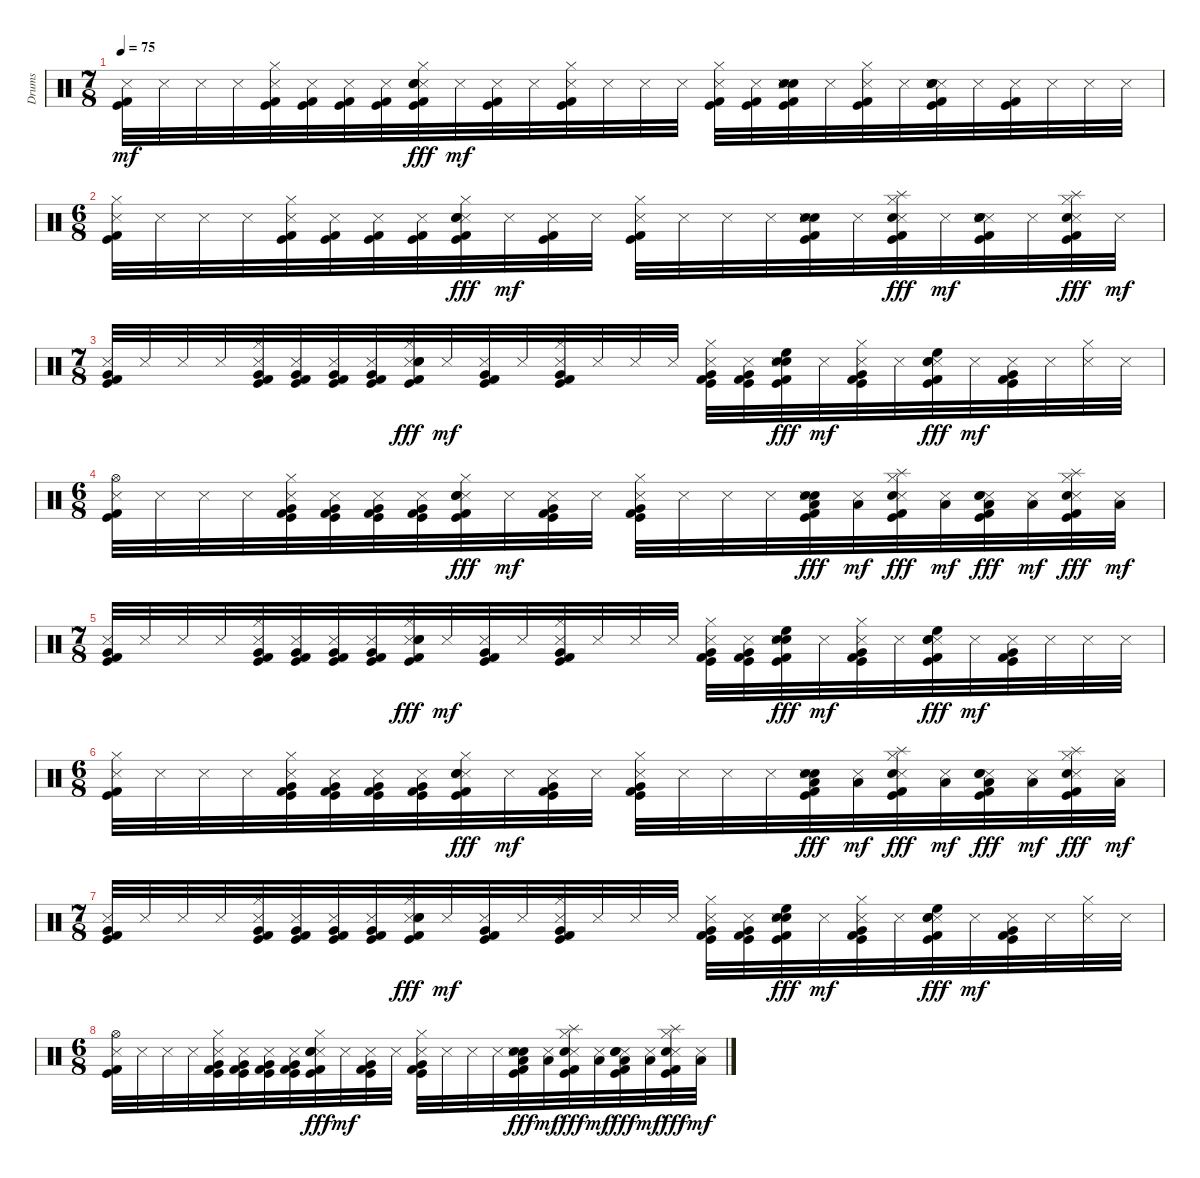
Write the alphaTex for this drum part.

\track ("Drums" "Drums") {instrument percussion}
\staff {score}
\articulation defaults
\ts (7 8)
\tempo 75
\clef neutral
\ks c
("Kick (hit) 2" "Kick (hit)" "Metronome (hit)").32{dy mf} "Metronome (hit)".32 "Metronome (hit)".32 "Metronome (hit)".32 ("Hi-Hat (closed)" "Kick (hit)" "Kick (hit) 2" "Metronome (hit)").32 ("Kick (hit)" "Kick (hit) 2" "Metronome (hit)").32 ("Kick (hit)" "Kick (hit) 2" "Metronome (hit)").32 ("Kick (hit)" "Kick (hit) 2" "Metronome (hit)").32 ("Hi-Hat (closed)" "Metronome (hit)" "Snare (hit) 2" "Electric Snare (hit)" "Kick (hit)" "Kick (hit) 2").32{dy fff} "Metronome (hit)".32{dy mf} ("Kick (hit) 2" "Kick (hit)" "Metronome (hit)").32 "Metronome (hit)".32 ("Hi-Hat (closed)" "Kick (hit)" "Kick (hit) 2" "Metronome (hit)").32 "Metronome (hit)".32 "Metronome (hit)".32 "Metronome (hit)".32 ("Hi-Hat (closed)" "Kick (hit) 2" "Kick (hit)" "Metronome (hit)").32 ("Kick (hit)" "Kick (hit) 2" "Metronome (hit)").32 ("Snare (hit) 2" "Metronome (hit)" "Kick (hit)" "Kick (hit) 2" "Electric Snare (hit)" "Metronome (hit)").32 "Metronome (hit)".32 ("Hi-Hat (closed)" "Kick (hit)" "Kick (hit) 2" "Metronome (hit)").32 "Metronome (hit)".32 ("Metronome (hit)" "Kick (hit)" "Kick (hit) 2" "Snare (hit) 2" "Electric Snare (hit)" "Metronome (hit)").32 "Metronome (hit)".32 ("Kick (hit) 2" "Kick (hit)" "Metronome (hit)").32 "Metronome (hit)".32 "Metronome (hit)".32 "Metronome (hit)".32 |
\ts (6 8)
("Hi-Hat (closed)" "Kick (hit) 2" "Kick (hit)" "Metronome (hit)").32 "Metronome (hit)".32 "Metronome (hit)".32 "Metronome (hit)".32 ("Hi-Hat (closed)" "Kick (hit) 2" "Kick (hit)" "Metronome (hit)").32 ("Kick (hit) 2" "Kick (hit)" "Metronome (hit)").32 ("Kick (hit) 2" "Kick (hit)" "Metronome (hit)").32 ("Kick (hit)" "Kick (hit) 2" "Metronome (hit)").32 ("Hi-Hat (closed)" "Metronome (hit)" "Kick (hit)" "Kick (hit) 2" "Snare (hit) 2" "Electric Snare (hit)").32{dy fff} "Metronome (hit)".32{dy mf} ("Kick (hit)" "Kick (hit) 2" "Metronome (hit)").32 "Metronome (hit)".32 ("Hi-Hat (closed)" "Kick (hit)" "Kick (hit) 2" "Metronome (hit)").32 "Metronome (hit)".32 "Metronome (hit)".32 "Metronome (hit)".32 ("Electric Snare (hit)" "Metronome (hit)" "Kick (hit)" "Kick (hit) 2" "Snare (hit) 2" "Metronome (hit)").32 "Metronome (hit)".32 ("Hi-Hat (closed)" "Splash (hit)" "Metronome (hit)" "Kick (hit)" "Kick (hit) 2" "Snare (hit) 2").32{dy fff} "Metronome (hit)".32{dy mf} ("Metronome (hit)" "Kick (hit)" "Kick (hit) 2" "Snare (hit) 2" "Electric Snare (hit)" "Metronome (hit)").32 "Metronome (hit)".32 ("Hi-Hat (closed)" "Splash (hit)" "Metronome (hit)" "Kick (hit)" "Kick (hit) 2" "Snare (hit) 2").32{dy fff} "Metronome (hit)".32{dy mf} |
\ts (7 8)
("Kick (hit) 2" "Kick (hit)" "Very Low Tom (hit)" "Metronome (hit)").32 "Metronome (hit)".32 "Metronome (hit)".32 "Metronome (hit)".32 ("Hi-Hat (closed)" "Kick (hit)" "Kick (hit) 2" "Very Low Tom (hit)" "Metronome (hit)").32 ("Kick (hit)" "Kick (hit) 2" "Very Low Tom (hit)" "Metronome (hit)").32 ("Kick (hit)" "Kick (hit) 2" "Very Low Tom (hit)" "Metronome (hit)").32 ("Kick (hit)" "Kick (hit) 2" "Very Low Tom (hit)" "Metronome (hit)").32 ("Hi-Hat (closed)" "Metronome (hit)" "Snare (hit) 2" "Electric Snare (hit)" "Kick (hit)" "Kick (hit) 2").32{dy fff} "Metronome (hit)".32{dy mf} ("Kick (hit) 2" "Kick (hit)" "Very Low Tom (hit)" "Metronome (hit)").32 "Metronome (hit)".32 ("Hi-Hat (closed)" "Kick (hit)" "Kick (hit) 2" "Very Low Tom (hit)" "Metronome (hit)").32 "Metronome (hit)".32 "Metronome (hit)".32 "Metronome (hit)".32 ("Hi-Hat (closed)" "Kick (hit) 2" "Kick (hit)" "Very Low Tom (hit)" "Metronome (hit)").32 ("Kick (hit)" "Kick (hit) 2" "Very Low Tom (hit)" "Metronome (hit)").32 ("Snare (hit) 2" "Metronome (hit)" "Kick (hit)" "Kick (hit) 2" "Electric Snare (hit)" "High Floor Tom (hit)").32{dy fff} "Metronome (hit)".32{dy mf} ("Hi-Hat (closed)" "Kick (hit)" "Kick (hit) 2" "Very Low Tom (hit)" "Metronome (hit)").32 "Metronome (hit)".32 ("Metronome (hit)" "Kick (hit)" "Kick (hit) 2" "Snare (hit) 2" "Electric Snare (hit)" "High Floor Tom (hit)").32{dy fff} "Metronome (hit)".32{dy mf} ("Very Low Tom (hit)" "Kick (hit) 2" "Kick (hit)" "Metronome (hit)").32 "Metronome (hit)".32 ("Hi-Hat (closed)" "Metronome (hit)").32 "Metronome (hit)".32 |
\ts (6 8)
("Hi-Hat (open)" "Kick (hit) 2" "Kick (hit)" "Metronome (hit)").32 "Metronome (hit)".32 "Metronome (hit)".32 "Metronome (hit)".32 ("Hi-Hat (closed)" "Kick (hit) 2" "Kick (hit)" "Very Low Tom (hit)" "Metronome (hit)").32 ("Kick (hit) 2" "Kick (hit)" "Very Low Tom (hit)" "Metronome (hit)").32 ("Kick (hit) 2" "Kick (hit)" "Very Low Tom (hit)" "Metronome (hit)").32 ("Kick (hit)" "Kick (hit) 2" "Very Low Tom (hit)" "Metronome (hit)").32 ("Hi-Hat (closed)" "Metronome (hit)" "Kick (hit)" "Kick (hit) 2" "Snare (hit) 2" "Electric Snare (hit)").32{dy fff} "Metronome (hit)".32{dy mf} ("Kick (hit)" "Kick (hit) 2" "Very Low Tom (hit)" "Metronome (hit)").32 "Metronome (hit)".32 ("Hi-Hat (closed)" "Kick (hit)" "Kick (hit) 2" "Very Low Tom (hit)" "Metronome (hit)").32 "Metronome (hit)".32 "Metronome (hit)".32 "Metronome (hit)".32 ("Electric Snare (hit)" "Metronome (hit)" "Kick (hit)" "Kick (hit) 2" "Snare (hit) 2" "Low Floor Tom (hit)").32{dy fff} ("Low Floor Tom (hit)" "Metronome (hit)").32{dy mf} ("Hi-Hat (closed)" "Splash (hit)" "Metronome (hit)" "Kick (hit)" "Kick (hit) 2" "Snare (hit) 2").32{dy fff} ("Low Floor Tom (hit)" "Metronome (hit)").32{dy mf} ("Metronome (hit)" "Kick (hit)" "Kick (hit) 2" "Snare (hit) 2" "Electric Snare (hit)" "Low Floor Tom (hit)").32{dy fff} ("Low Floor Tom (hit)" "Metronome (hit)").32{dy mf} ("Hi-Hat (closed)" "Splash (hit)" "Metronome (hit)" "Kick (hit)" "Kick (hit) 2" "Snare (hit) 2").32{dy fff} ("Low Floor Tom (hit)" "Metronome (hit)").32{dy mf} |
\ts (7 8)
("Kick (hit) 2" "Kick (hit)" "Very Low Tom (hit)" "Metronome (hit)").32 "Metronome (hit)".32 "Metronome (hit)".32 "Metronome (hit)".32 ("Hi-Hat (closed)" "Kick (hit)" "Kick (hit) 2" "Very Low Tom (hit)" "Metronome (hit)").32 ("Kick (hit)" "Kick (hit) 2" "Very Low Tom (hit)" "Metronome (hit)").32 ("Kick (hit)" "Kick (hit) 2" "Very Low Tom (hit)" "Metronome (hit)").32 ("Kick (hit)" "Kick (hit) 2" "Very Low Tom (hit)" "Metronome (hit)").32 ("Hi-Hat (closed)" "Metronome (hit)" "Snare (hit) 2" "Electric Snare (hit)" "Kick (hit)" "Kick (hit) 2").32{dy fff} "Metronome (hit)".32{dy mf} ("Kick (hit) 2" "Kick (hit)" "Very Low Tom (hit)" "Metronome (hit)").32 "Metronome (hit)".32 ("Hi-Hat (closed)" "Kick (hit)" "Kick (hit) 2" "Very Low Tom (hit)" "Metronome (hit)").32 "Metronome (hit)".32 "Metronome (hit)".32 "Metronome (hit)".32 ("Hi-Hat (closed)" "Kick (hit) 2" "Kick (hit)" "Very Low Tom (hit)" "Metronome (hit)").32 ("Kick (hit)" "Kick (hit) 2" "Very Low Tom (hit)" "Metronome (hit)").32 ("Snare (hit) 2" "Metronome (hit)" "Kick (hit)" "Kick (hit) 2" "Electric Snare (hit)" "High Floor Tom (hit)").32{dy fff} "Metronome (hit)".32{dy mf} ("Hi-Hat (closed)" "Kick (hit)" "Kick (hit) 2" "Very Low Tom (hit)" "Metronome (hit)").32 "Metronome (hit)".32 ("Metronome (hit)" "Kick (hit)" "Kick (hit) 2" "Snare (hit) 2" "Electric Snare (hit)" "High Floor Tom (hit)").32{dy fff} "Metronome (hit)".32{dy mf} ("Kick (hit) 2" "Kick (hit)" "Very Low Tom (hit)" "Metronome (hit)").32 "Metronome (hit)".32 "Metronome (hit)".32 "Metronome (hit)".32 |
\ts (6 8)
("Hi-Hat (closed)" "Kick (hit) 2" "Kick (hit)" "Metronome (hit)").32 "Metronome (hit)".32 "Metronome (hit)".32 "Metronome (hit)".32 ("Hi-Hat (closed)" "Kick (hit) 2" "Kick (hit)" "Very Low Tom (hit)" "Metronome (hit)").32 ("Kick (hit) 2" "Kick (hit)" "Very Low Tom (hit)" "Metronome (hit)").32 ("Kick (hit) 2" "Kick (hit)" "Very Low Tom (hit)" "Metronome (hit)").32 ("Kick (hit)" "Kick (hit) 2" "Very Low Tom (hit)" "Metronome (hit)").32 ("Hi-Hat (closed)" "Metronome (hit)" "Kick (hit)" "Kick (hit) 2" "Snare (hit) 2" "Electric Snare (hit)").32{dy fff} "Metronome (hit)".32{dy mf} ("Kick (hit)" "Kick (hit) 2" "Very Low Tom (hit)" "Metronome (hit)").32 "Metronome (hit)".32 ("Hi-Hat (closed)" "Kick (hit)" "Kick (hit) 2" "Very Low Tom (hit)" "Metronome (hit)").32 "Metronome (hit)".32 "Metronome (hit)".32 "Metronome (hit)".32 ("Electric Snare (hit)" "Metronome (hit)" "Kick (hit)" "Kick (hit) 2" "Snare (hit) 2" "Low Floor Tom (hit)").32{dy fff} ("Low Floor Tom (hit)" "Metronome (hit)").32{dy mf} ("Hi-Hat (closed)" "Splash (hit)" "Metronome (hit)" "Kick (hit)" "Kick (hit) 2" "Snare (hit) 2").32{dy fff} ("Low Floor Tom (hit)" "Metronome (hit)").32{dy mf} ("Metronome (hit)" "Kick (hit)" "Kick (hit) 2" "Snare (hit) 2" "Electric Snare (hit)" "Low Floor Tom (hit)").32{dy fff} ("Low Floor Tom (hit)" "Metronome (hit)").32{dy mf} ("Hi-Hat (closed)" "Splash (hit)" "Metronome (hit)" "Kick (hit)" "Kick (hit) 2" "Snare (hit) 2").32{dy fff} ("Low Floor Tom (hit)" "Metronome (hit)").32{dy mf} |
\ts (7 8)
("Kick (hit) 2" "Kick (hit)" "Very Low Tom (hit)" "Metronome (hit)").32 "Metronome (hit)".32 "Metronome (hit)".32 "Metronome (hit)".32 ("Hi-Hat (closed)" "Kick (hit)" "Kick (hit) 2" "Very Low Tom (hit)" "Metronome (hit)").32 ("Kick (hit)" "Kick (hit) 2" "Very Low Tom (hit)" "Metronome (hit)").32 ("Kick (hit)" "Kick (hit) 2" "Very Low Tom (hit)" "Metronome (hit)").32 ("Kick (hit)" "Kick (hit) 2" "Very Low Tom (hit)" "Metronome (hit)").32 ("Hi-Hat (closed)" "Metronome (hit)" "Snare (hit) 2" "Electric Snare (hit)" "Kick (hit)" "Kick (hit) 2").32{dy fff} "Metronome (hit)".32{dy mf} ("Kick (hit) 2" "Kick (hit)" "Very Low Tom (hit)" "Metronome (hit)").32 "Metronome (hit)".32 ("Hi-Hat (closed)" "Kick (hit)" "Kick (hit) 2" "Very Low Tom (hit)" "Metronome (hit)").32 "Metronome (hit)".32 "Metronome (hit)".32 "Metronome (hit)".32 ("Hi-Hat (closed)" "Kick (hit) 2" "Kick (hit)" "Very Low Tom (hit)" "Metronome (hit)").32 ("Kick (hit)" "Kick (hit) 2" "Very Low Tom (hit)" "Metronome (hit)").32 ("Snare (hit) 2" "Metronome (hit)" "Kick (hit)" "Kick (hit) 2" "Electric Snare (hit)" "High Floor Tom (hit)").32{dy fff} "Metronome (hit)".32{dy mf} ("Hi-Hat (closed)" "Kick (hit)" "Kick (hit) 2" "Very Low Tom (hit)" "Metronome (hit)").32 "Metronome (hit)".32 ("Metronome (hit)" "Kick (hit)" "Kick (hit) 2" "Snare (hit) 2" "Electric Snare (hit)" "High Floor Tom (hit)").32{dy fff} "Metronome (hit)".32{dy mf} ("Kick (hit) 2" "Kick (hit)" "Very Low Tom (hit)" "Metronome (hit)").32 "Metronome (hit)".32 ("Hi-Hat (closed)" "Metronome (hit)").32 "Metronome (hit)".32 |
\ts (6 8)
("Hi-Hat (open)" "Kick (hit) 2" "Kick (hit)" "Metronome (hit)").32 "Metronome (hit)".32 "Metronome (hit)".32 "Metronome (hit)".32 ("Hi-Hat (closed)" "Kick (hit) 2" "Kick (hit)" "Very Low Tom (hit)" "Metronome (hit)").32 ("Kick (hit) 2" "Kick (hit)" "Very Low Tom (hit)" "Metronome (hit)").32 ("Kick (hit) 2" "Kick (hit)" "Very Low Tom (hit)" "Metronome (hit)").32 ("Kick (hit)" "Kick (hit) 2" "Very Low Tom (hit)" "Metronome (hit)").32 ("Hi-Hat (closed)" "Metronome (hit)" "Kick (hit)" "Kick (hit) 2" "Snare (hit) 2" "Electric Snare (hit)").32{dy fff} "Metronome (hit)".32{dy mf} ("Kick (hit)" "Kick (hit) 2" "Very Low Tom (hit)" "Metronome (hit)").32 "Metronome (hit)".32 ("Hi-Hat (closed)" "Kick (hit)" "Kick (hit) 2" "Very Low Tom (hit)" "Metronome (hit)").32 "Metronome (hit)".32 "Metronome (hit)".32 "Metronome (hit)".32 ("Electric Snare (hit)" "Metronome (hit)" "Kick (hit)" "Kick (hit) 2" "Snare (hit) 2" "Low Floor Tom (hit)").32{dy fff} ("Low Floor Tom (hit)" "Metronome (hit)").32{dy mf} ("Hi-Hat (closed)" "Splash (hit)" "Metronome (hit)" "Kick (hit)" "Kick (hit) 2" "Snare (hit) 2").32{dy fff} ("Low Floor Tom (hit)" "Metronome (hit)").32{dy mf} ("Metronome (hit)" "Kick (hit)" "Kick (hit) 2" "Snare (hit) 2" "Electric Snare (hit)" "Low Floor Tom (hit)").32{dy fff} ("Low Floor Tom (hit)" "Metronome (hit)").32{dy mf} ("Hi-Hat (closed)" "Splash (hit)" "Metronome (hit)" "Kick (hit)" "Kick (hit) 2" "Snare (hit) 2").32{dy fff} ("Low Floor Tom (hit)" "Metronome (hit)").32{dy mf}
